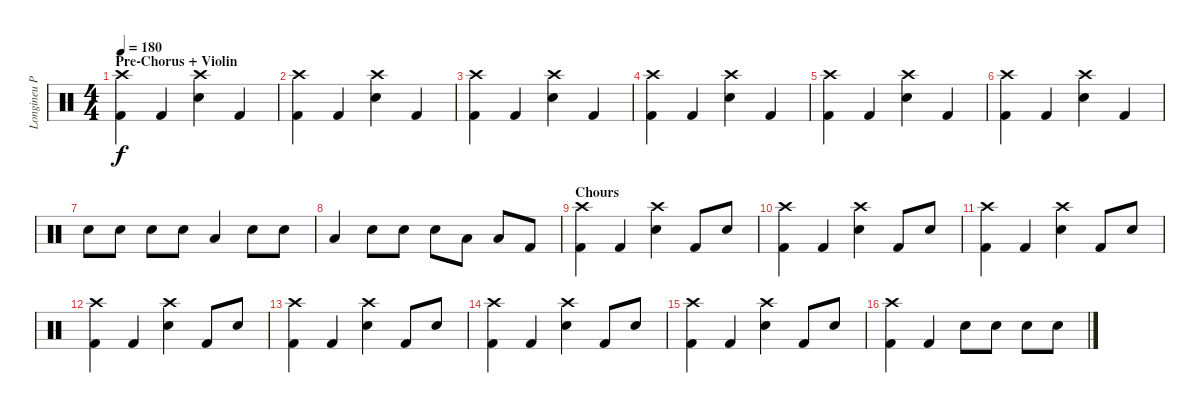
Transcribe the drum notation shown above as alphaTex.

\track ("Longineu Parsons III (Drums)" "Longineu P") {instrument percussion}
\staff {score}
\articulation defaults
\ts (4 4)
\section ("" "Pre-Chorus + Violin")
\tempo 180
\clef neutral
\ks c
("Crash high (hit)" "Kick (hit) 2").4{dy f} "Kick (hit) 2".4 ("Crash high (hit)" "Snare (hit) 2").4 "Kick (hit) 2".4 |
("Crash high (hit)" "Kick (hit) 2").4 "Kick (hit) 2".4 ("Crash high (hit)" "Snare (hit) 2").4 "Kick (hit) 2".4 |
("Crash high (hit)" "Kick (hit) 2").4 "Kick (hit) 2".4 ("Crash high (hit)" "Snare (hit) 2").4 "Kick (hit) 2".4 |
("Crash high (hit)" "Kick (hit) 2").4 "Kick (hit) 2".4 ("Crash high (hit)" "Snare (hit) 2").4 "Kick (hit) 2".4 |
("Crash high (hit)" "Kick (hit) 2").4 "Kick (hit) 2".4 ("Crash high (hit)" "Snare (hit) 2").4 "Kick (hit) 2".4 |
("Crash high (hit)" "Kick (hit) 2").4 "Kick (hit) 2".4 ("Crash high (hit)" "Snare (hit) 2").4 "Kick (hit) 2".4 |
"Snare (hit) 2".8 "Snare (hit) 2".8 "Snare (hit) 2".8 "Snare (hit) 2".8 "Low Tom (hit)".4 "Snare (hit) 2".8 "Snare (hit) 2".8 |
"Low Tom (hit)".4 "Snare (hit) 2".8 "Snare (hit) 2".8 "Snare (hit) 2".8 "Low Tom (hit)".8 "Low Floor Tom (hit)".8 "Kick (hit) 2".8 |
\section ("" "Chours")
("Kick (hit) 2" "Crash high (hit)").4 "Kick (hit) 2".4 ("Snare (hit) 2" "Crash high (hit)").4 "Kick (hit) 2".8 "Snare (hit) 2".8 |
("Kick (hit) 2" "Crash high (hit)").4 "Kick (hit) 2".4 ("Snare (hit) 2" "Crash high (hit)").4 "Kick (hit) 2".8 "Snare (hit) 2".8 |
("Kick (hit) 2" "Crash high (hit)").4 "Kick (hit) 2".4 ("Snare (hit) 2" "Crash high (hit)").4 "Kick (hit) 2".8 "Snare (hit) 2".8 |
("Kick (hit) 2" "Crash high (hit)").4 "Kick (hit) 2".4 ("Snare (hit) 2" "Crash high (hit)").4 "Kick (hit) 2".8 "Snare (hit) 2".8 |
("Kick (hit) 2" "Crash high (hit)").4 "Kick (hit) 2".4 ("Snare (hit) 2" "Crash high (hit)").4 "Kick (hit) 2".8 "Snare (hit) 2".8 |
("Kick (hit) 2" "Crash high (hit)").4 "Kick (hit) 2".4 ("Snare (hit) 2" "Crash high (hit)").4 "Kick (hit) 2".8 "Snare (hit) 2".8 |
("Kick (hit) 2" "Crash high (hit)").4 "Kick (hit) 2".4 ("Snare (hit) 2" "Crash high (hit)").4 "Kick (hit) 2".8 "Snare (hit) 2".8 |
("Kick (hit) 2" "Crash high (hit)").4 "Kick (hit) 2".4 "Snare (hit) 2".8 "Snare (hit) 2".8 "Snare (hit) 2".8 "Snare (hit) 2".8
